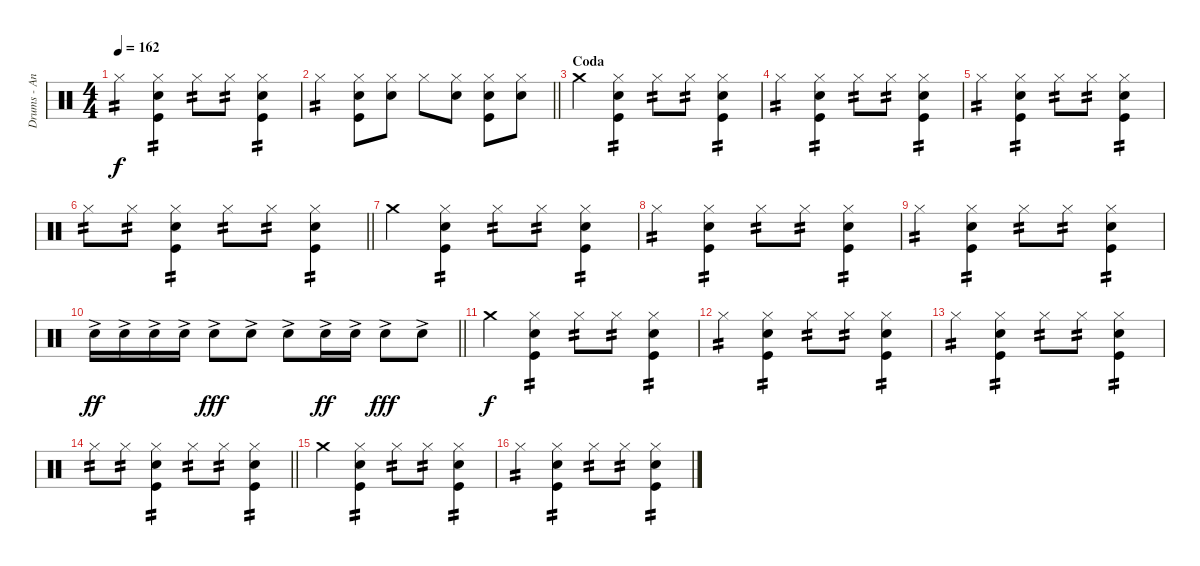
\track ("Drums - Andriushkin" "Drums - An") {instrument percussion}
\staff {score}
\articulation defaults
\ts (4 4)
\tempo 162
\clef neutral
\ks c "Hi-Hat (closed)".4{tp 2 dy f}
("Hi-Hat (closed)" "Electric Snare (hit)" "Kick (hit)").4{tp 2} "Hi-Hat (closed)".8{tp 2} "Hi-Hat (closed)".8{tp 2} ("Hi-Hat (closed)" "Electric Snare (hit)" "Kick (hit)").4{tp 2} |
\barLineRight lightlight "Hi-Hat (closed)".4{tp 2}
("Hi-Hat (closed)" "Electric Snare (hit)" "Kick (hit)").8 ("Hi-Hat (closed)" "Electric Snare (hit)").8 "Hi-Hat (closed)".8 ("Hi-Hat (closed)" "Electric Snare (hit)").8 ("Hi-Hat (closed)" "Electric Snare (hit)" "Kick (hit)").8 ("Hi-Hat (closed)" "Electric Snare (hit)").8 |
\section ("" "Coda")
"Crash medium (hit)".4 ("Hi-Hat (closed)" "Electric Snare (hit)" "Kick (hit)").4{tp 2} "Hi-Hat (closed)".8{tp 2} "Hi-Hat (closed)".8{tp 2} ("Hi-Hat (closed)" "Electric Snare (hit)" "Kick (hit)").4{tp 2} |
"Hi-Hat (closed)".4{tp 2} ("Hi-Hat (closed)" "Electric Snare (hit)" "Kick (hit)").4{tp 2} "Hi-Hat (closed)".8{tp 2} "Hi-Hat (closed)".8{tp 2} ("Hi-Hat (closed)" "Electric Snare (hit)" "Kick (hit)").4{tp 2} |
"Hi-Hat (closed)".4{tp 2} ("Hi-Hat (closed)" "Electric Snare (hit)" "Kick (hit)").4{tp 2} "Hi-Hat (closed)".8{tp 2} "Hi-Hat (closed)".8{tp 2} ("Hi-Hat (closed)" "Electric Snare (hit)" "Kick (hit)").4{tp 2} |
\barLineRight lightlight "Hi-Hat (closed)".8{tp 2} "Hi-Hat (closed)".8{tp 2}
("Hi-Hat (closed)" "Electric Snare (hit)" "Kick (hit)").4{tp 2} "Hi-Hat (closed)".8{tp 2} "Hi-Hat (closed)".8{tp 2} ("Hi-Hat (closed)" "Electric Snare (hit)" "Kick (hit)").4{tp 2} |
"Crash medium (hit)".4 ("Hi-Hat (closed)" "Electric Snare (hit)" "Kick (hit)").4{tp 2} "Hi-Hat (closed)".8{tp 2} "Hi-Hat (closed)".8{tp 2} ("Hi-Hat (closed)" "Electric Snare (hit)" "Kick (hit)").4{tp 2} |
"Hi-Hat (closed)".4{tp 2} ("Hi-Hat (closed)" "Electric Snare (hit)" "Kick (hit)").4{tp 2} "Hi-Hat (closed)".8{tp 2} "Hi-Hat (closed)".8{tp 2} ("Hi-Hat (closed)" "Electric Snare (hit)" "Kick (hit)").4{tp 2} |
"Hi-Hat (closed)".4{tp 2} ("Hi-Hat (closed)" "Electric Snare (hit)" "Kick (hit)").4{tp 2} "Hi-Hat (closed)".8{tp 2} "Hi-Hat (closed)".8{tp 2} ("Hi-Hat (closed)" "Electric Snare (hit)" "Kick (hit)").4{tp 2} |
\barLineRight lightlight "Electric Snare (hit)"{ac}.16{dy ff} "Electric Snare (hit)"{ac}.16 "Electric Snare (hit)"{ac}.16 "Electric Snare (hit)"{ac}.16 "Electric Snare (hit)"{ac}.8{dy fff} "Electric Snare (hit)"{ac}.8 "Electric Snare (hit)"{ac}.8 "Electric Snare (hit)"{ac}.16{dy ff} "Electric Snare (hit)"{ac}.16 "Electric Snare (hit)"{ac}.8{dy fff} "Electric Snare (hit)"{ac}.8
|
"Crash medium (hit)".4{dy f} ("Hi-Hat (closed)" "Electric Snare (hit)" "Kick (hit)").4{tp 2} "Hi-Hat (closed)".8{tp 2} "Hi-Hat (closed)".8{tp 2} ("Hi-Hat (closed)" "Electric Snare (hit)" "Kick (hit)").4{tp 2} |
"Hi-Hat (closed)".4{tp 2} ("Hi-Hat (closed)" "Electric Snare (hit)" "Kick (hit)").4{tp 2} "Hi-Hat (closed)".8{tp 2} "Hi-Hat (closed)".8{tp 2} ("Hi-Hat (closed)" "Electric Snare (hit)" "Kick (hit)").4{tp 2} |
"Hi-Hat (closed)".4{tp 2} ("Hi-Hat (closed)" "Electric Snare (hit)" "Kick (hit)").4{tp 2} "Hi-Hat (closed)".8{tp 2} "Hi-Hat (closed)".8{tp 2} ("Hi-Hat (closed)" "Electric Snare (hit)" "Kick (hit)").4{tp 2} |
\barLineRight lightlight "Hi-Hat (closed)".8{tp 2} "Hi-Hat (closed)".8{tp 2}
("Hi-Hat (closed)" "Electric Snare (hit)" "Kick (hit)").4{tp 2} "Hi-Hat (closed)".8{tp 2} "Hi-Hat (closed)".8{tp 2} ("Hi-Hat (closed)" "Electric Snare (hit)" "Kick (hit)").4{tp 2} |
"Crash medium (hit)".4 ("Hi-Hat (closed)" "Electric Snare (hit)" "Kick (hit)").4{tp 2} "Hi-Hat (closed)".8{tp 2} "Hi-Hat (closed)".8{tp 2} ("Hi-Hat (closed)" "Electric Snare (hit)" "Kick (hit)").4{tp 2} |
"Hi-Hat (closed)".4{tp 2} ("Hi-Hat (closed)" "Electric Snare (hit)" "Kick (hit)").4{tp 2} "Hi-Hat (closed)".8{tp 2} "Hi-Hat (closed)".8{tp 2} ("Hi-Hat (closed)" "Electric Snare (hit)" "Kick (hit)").4{tp 2}
